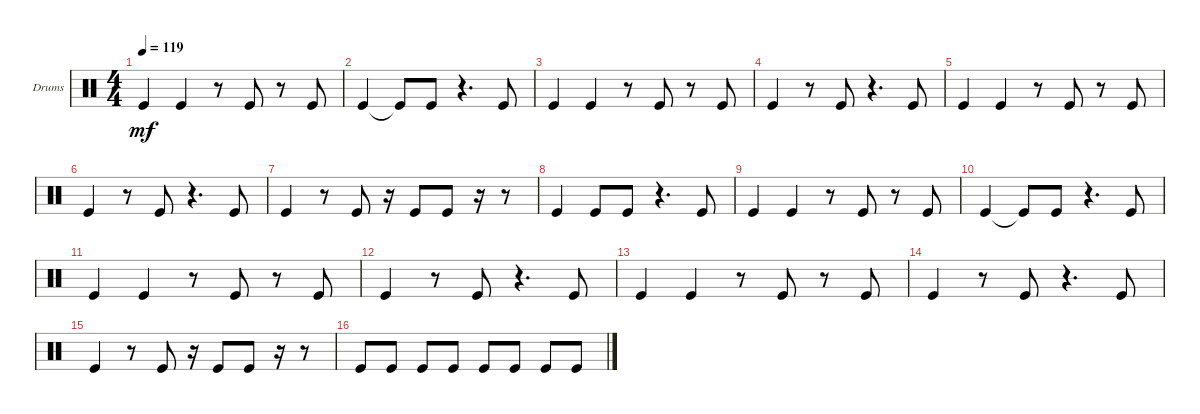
\defaultSystemsLayout 4
\bracketExtendMode groupsimilarinstruments
\firstSystemTrackNameOrientation horizontal
\otherSystemsTrackNameOrientation horizontal
\track ("Kick (hit)" "Drums") {instrument percussion}
\staff {score}
\articulation defaults
\ts (4 4)
\tempo 119
\clef neutral
\scale
0.333333
\ks c "Kick (hit)".4{dy mf} "Kick (hit)".4
r.8 "Kick (hit)".8 r.8 "Kick (hit)".8 |
\scale
0.333333 "Kick (hit)".4 "Kick (hit)"{t}.8 "Kick (hit)".8 r.4{d} "Kick (hit)".8 |
\scale
0.333333 "Kick (hit)".4 "Kick (hit)".4 r.8 "Kick (hit)".8 r.8 "Kick (hit)".8 |
\scale
0.333333 "Kick (hit)".4 r.8 "Kick (hit)".8 r.4{d} "Kick (hit)".8 |
\scale
0.333333 "Kick (hit)".4 "Kick (hit)".4 r.8 "Kick (hit)".8 r.8 "Kick (hit)".8 |
\scale
0.333333 "Kick (hit)".4 r.8 "Kick (hit)".8 r.4{d} "Kick (hit)".8 |
\scale
0.333333 "Kick (hit)".4 r.8 "Kick (hit)".8 r.16 "Kick (hit)".8 "Kick (hit)".8 r.16 r.8 |
\scale
0.333333 "Kick (hit)".4 "Kick (hit)".8 "Kick (hit)".8 r.4{d} "Kick (hit)".8 |
\scale
0.333333 "Kick (hit)".4 "Kick (hit)".4 r.8 "Kick (hit)".8 r.8 "Kick (hit)".8 |
\scale
0.333333 "Kick (hit)".4 "Kick (hit)"{t}.8 "Kick (hit)".8 r.4{d} "Kick (hit)".8 |
\scale
0.333333 "Kick (hit)".4 "Kick (hit)".4 r.8 "Kick (hit)".8 r.8 "Kick (hit)".8 |
\scale
0.333333 "Kick (hit)".4 r.8 "Kick (hit)".8 r.4{d} "Kick (hit)".8 |
\scale
0.333333 "Kick (hit)".4 "Kick (hit)".4 r.8 "Kick (hit)".8 r.8 "Kick (hit)".8 |
\scale
0.333333 "Kick (hit)".4 r.8 "Kick (hit)".8 r.4{d} "Kick (hit)".8 |
\scale
0.333333 "Kick (hit)".4 r.8 "Kick (hit)".8 r.16 "Kick (hit)".8 "Kick (hit)".8 r.16 r.8 |
\scale
0.333333 "Kick (hit)".8 "Kick (hit)".8 "Kick (hit)".8 "Kick (hit)".8 "Kick (hit)".8 "Kick (hit)".8 "Kick (hit)".8 "Kick (hit)".8
